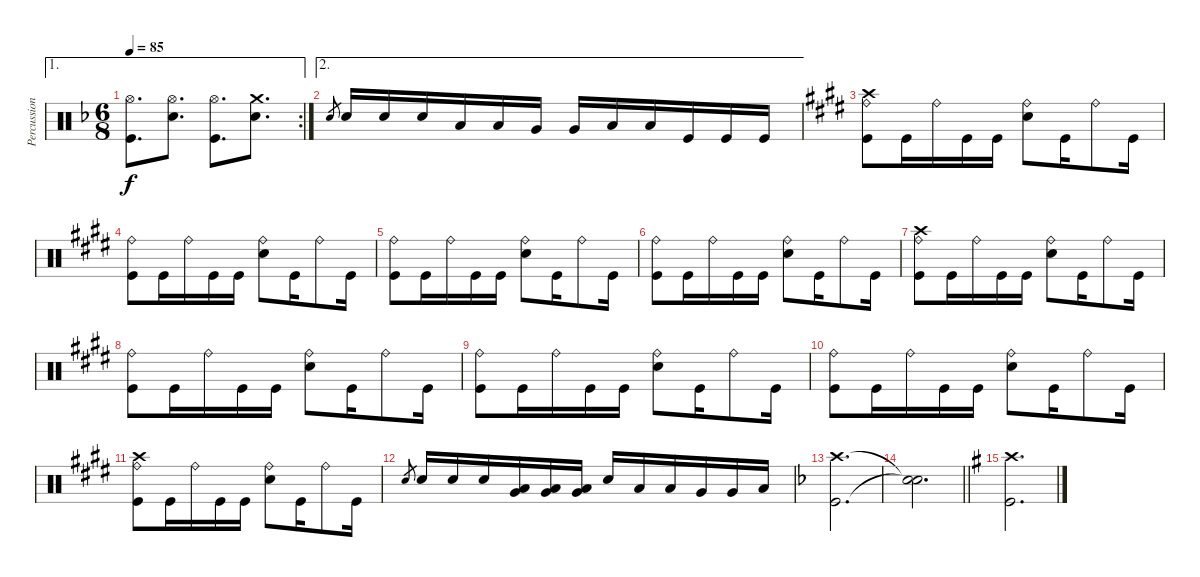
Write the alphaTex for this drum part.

\track ("Percussion" "Percussion") {instrument percussion}
\staff {score}
\articulation defaults
\ae 1
\rc 2
\ts (6 8)
\tempo 85
\clef neutral
\ks f
("Hi-Hat (open)" "Kick (hit)").8{d dy f} ("Hi-Hat (open)" "Snare (hit) 2").8{d} ("Hi-Hat (open)" "Kick (hit)").8{d} ("Crash medium (hit)" "Snare (hit) 2").8{d} |
\ae 2 "Snare (hit) 2".8{gr} "Snare (hit) 2".16 "Snare (hit) 2".16 "Snare (hit) 2".16 "Low Tom (hit)".16 "Low Tom (hit)".16 "Very Low Tom (hit)".16 "Very Low Tom (hit)".16 "Low Floor Tom (hit)".16 "Low Floor Tom (hit)".16 "Kick (hit)".16 "Kick (hit)".16 "Kick (hit)".16
|
\ks e
("Kick (hit)" "Ride (bell)" "Crash high (hit)").8 "Kick (hit)".16 "Ride (bell)".16 "Kick (hit)".16 "Kick (hit)".16 ("Ride (bell)" "Snare (hit) 2").8 "Kick (hit)".16 "Ride (bell)".8 "Kick (hit)".16 |
\ks c#minor
("Kick (hit)" "Ride (bell)").8 "Kick (hit)".16 "Ride (bell)".16 "Kick (hit)".16 "Kick (hit)".16 ("Ride (bell)" "Snare (hit) 2").8 "Kick (hit)".16 "Ride (bell)".8 "Kick (hit)".16 |
("Kick (hit)" "Ride (bell)").8 "Kick (hit)".16 "Ride (bell)".16 "Kick (hit)".16 "Kick (hit)".16 ("Ride (bell)" "Snare (hit) 2").8 "Kick (hit)".16 "Ride (bell)".8 "Kick (hit)".16 |
\ks e
("Kick (hit)" "Ride (bell)").8 "Kick (hit)".16 "Ride (bell)".16 "Kick (hit)".16 "Kick (hit)".16 ("Ride (bell)" "Snare (hit) 2").8 "Kick (hit)".16 "Ride (bell)".8 "Kick (hit)".16 |
("Kick (hit)" "Ride (bell)" "Crash high (hit)").8 "Kick (hit)".16 "Ride (bell)".16 "Kick (hit)".16 "Kick (hit)".16 ("Ride (bell)" "Snare (hit) 2").8 "Kick (hit)".16 "Ride (bell)".8 "Kick (hit)".16 |
\ks c#minor
("Kick (hit)" "Ride (bell)").8 "Kick (hit)".16 "Ride (bell)".16 "Kick (hit)".16 "Kick (hit)".16 ("Ride (bell)" "Snare (hit) 2").8 "Kick (hit)".16 "Ride (bell)".8 "Kick (hit)".16 |
("Kick (hit)" "Ride (bell)").8 "Kick (hit)".16 "Ride (bell)".16 "Kick (hit)".16 "Kick (hit)".16 ("Ride (bell)" "Snare (hit) 2").8 "Kick (hit)".16 "Ride (bell)".8 "Kick (hit)".16 |
\ks e
("Kick (hit)" "Ride (bell)").8 "Kick (hit)".16 "Ride (bell)".16 "Kick (hit)".16 "Kick (hit)".16 ("Ride (bell)" "Snare (hit) 2").8 "Kick (hit)".16 "Ride (bell)".8 "Kick (hit)".16 |
\ks c#minor
("Kick (hit)" "Ride (bell)" "Crash high (hit)").8 "Kick (hit)".16 "Ride (bell)".16 "Kick (hit)".16 "Kick (hit)".16 ("Ride (bell)" "Snare (hit) 2").8 "Kick (hit)".16 "Ride (bell)".8 "Kick (hit)".16 |
"Snare (hit) 2".8{gr} "Snare (hit) 2".16 "Snare (hit) 2".16 "Snare (hit) 2".16 ("Very Low Tom (hit)" "Low Tom (hit)").16 ("Low Tom (hit)" "Very Low Tom (hit)").16 ("Very Low Tom (hit)" "Low Floor Tom (hit)").16 "Snare (hit) 2".16 "Low Tom (hit)".16 "Low Tom (hit)".16 "Very Low Tom (hit)".16 "Very Low Tom (hit)".16 "Low Floor Tom (hit)".16 |
\ks f
("Kick (hit)" "Crash high (hit)").2{d} |
\barLineRight lightlight
("Snare (hit)"{t} "Snare (hit)"{t}).2{d} |
\ks g
("Kick (hit)" "Crash high (hit)").2{d}
